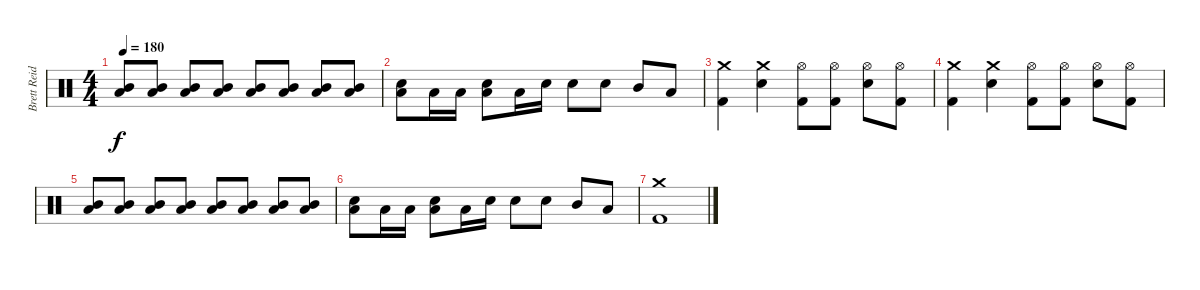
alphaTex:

\track ("Brett Reid" "Brett Reid") {instrument percussion}
\staff {score}
\articulation defaults
\ts (4 4)
\tempo 180
\clef neutral
\ks c
("Low Floor Tom (hit)" "Mid Tom (hit)").8{dy f} ("Low Floor Tom (hit)" "Mid Tom (hit)").8 ("Low Floor Tom (hit)" "Mid Tom (hit)").8 ("Low Floor Tom (hit)" "Mid Tom (hit)").8 ("Low Floor Tom (hit)" "Mid Tom (hit)").8 ("Low Floor Tom (hit)" "Mid Tom (hit)").8 ("Low Floor Tom (hit)" "Mid Tom (hit)").8 ("Low Floor Tom (hit)" "Mid Tom (hit)").8 |
("Low Floor Tom (hit)" "Snare (hit) 2").8 "Low Floor Tom (hit)".16 "Low Floor Tom (hit)".16 ("Low Floor Tom (hit)" "Snare (hit) 2").8 "Low Floor Tom (hit)".16 "Snare (hit) 2".16 "Snare (hit) 2".8 "Snare (hit) 2".8 "Mid Tom (hit)".8 "Low Floor Tom (hit)".8 |
("Crash medium (hit)" "Kick (hit) 2").4 ("Crash medium (hit)" "Snare (hit) 2").4 ("Hi-Hat (open)" "Kick (hit) 2").8 ("Hi-Hat (open)" "Kick (hit) 2").8 ("Hi-Hat (open)" "Snare (hit) 2").8 ("Hi-Hat (open)" "Kick (hit) 2").8 |
("Crash medium (hit)" "Kick (hit) 2").4 ("Crash medium (hit)" "Snare (hit) 2").4 ("Hi-Hat (open)" "Kick (hit) 2").8 ("Hi-Hat (open)" "Kick (hit) 2").8 ("Hi-Hat (open)" "Snare (hit) 2").8 ("Hi-Hat (open)" "Kick (hit) 2").8 |
("Low Floor Tom (hit)" "Mid Tom (hit)").8 ("Low Floor Tom (hit)" "Mid Tom (hit)").8 ("Low Floor Tom (hit)" "Mid Tom (hit)").8 ("Low Floor Tom (hit)" "Mid Tom (hit)").8 ("Low Floor Tom (hit)" "Mid Tom (hit)").8 ("Low Floor Tom (hit)" "Mid Tom (hit)").8 ("Low Floor Tom (hit)" "Mid Tom (hit)").8 ("Low Floor Tom (hit)" "Mid Tom (hit)").8 |
("Low Floor Tom (hit)" "Snare (hit) 2").8 "Low Floor Tom (hit)".16 "Low Floor Tom (hit)".16 ("Low Floor Tom (hit)" "Snare (hit) 2").8 "Low Floor Tom (hit)".16 "Snare (hit) 2".16 "Snare (hit) 2".8 "Snare (hit) 2".8 "Mid Tom (hit)".8 "Low Floor Tom (hit)".8 |
("Crash medium (hit)" "Kick (hit) 2").1
